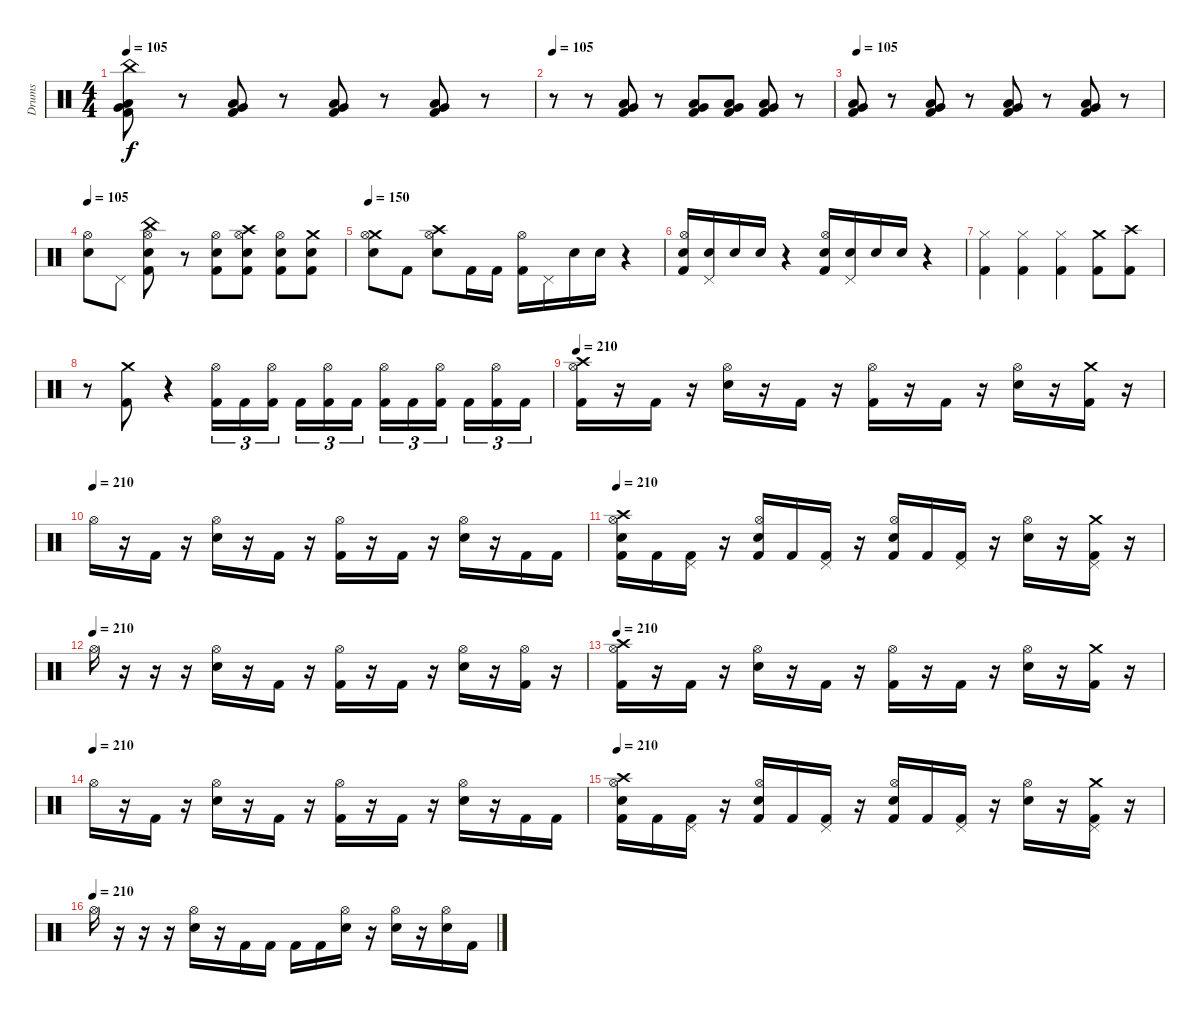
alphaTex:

\track ("Drums" "Drums") {instrument percussion}
\staff {score}
\articulation defaults
\ts (4 4)
\tempo 105
\clef neutral
\ks c
("China (hit)" "Very Low Tom (hit)" "Low Tom (hit)" "Kick (hit) 2").8{dy f} r.8 ("Low Tom (hit)" "Very Low Tom (hit)" "Kick (hit) 2").8 r.8 ("Low Tom (hit)" "Very Low Tom (hit)" "Kick (hit) 2").8 r.8 ("Low Tom (hit)" "Very Low Tom (hit)" "Kick (hit) 2").8 r.8 |
\tempo 105
r.8 r.8 ("Low Tom (hit)" "Very Low Tom (hit)" "Kick (hit) 2").8 r.8 ("Low Tom (hit)" "Very Low Tom (hit)" "Kick (hit) 2").8 ("Low Tom (hit)" "Very Low Tom (hit)" "Kick (hit) 2").8 ("Low Tom (hit)" "Very Low Tom (hit)" "Kick (hit) 2").8 r.8 |
\tempo 105
("Very Low Tom (hit)" "Low Tom (hit)" "Kick (hit) 2").8 r.8 ("Low Tom (hit)" "Very Low Tom (hit)" "Kick (hit) 2").8 r.8 ("Low Tom (hit)" "Very Low Tom (hit)" "Kick (hit) 2").8 r.8 ("Low Tom (hit)" "Very Low Tom (hit)" "Kick (hit) 2").8 r.8 |
\tempo 105
("Hi-Hat (open)" "Electric Snare (hit)").8 "Pedal Hi-Hat (hit)".8 ("China (hit)" "Hi-Hat (open)" "Electric Snare (hit)" "Kick (hit) 2").8 r.8 ("Hi-Hat (open)" "Electric Snare (hit)" "Kick (hit) 2").8 ("Crash high (hit)" "Hi-Hat (open)" "Electric Snare (hit)" "Kick (hit) 2").8 ("Hi-Hat (open)" "Electric Snare (hit)" "Kick (hit) 2").8 ("Crash medium (hit)" "Electric Snare (hit)" "Kick (hit) 2").8 |
\tempo 150
("Crash medium (hit)" "Hi-Hat (open)" "Electric Snare (hit)").8 "Kick (hit) 2".8 ("Crash high (hit)" "Hi-Hat (open)" "Electric Snare (hit)").8 "Kick (hit) 2".16 "Kick (hit) 2".16 ("Hi-Hat (open)" "Kick (hit) 2").16 "Pedal Hi-Hat (hit)".16 "Electric Snare (hit)".16 "Electric Snare (hit)".16 r.4 |
("Hi-Hat (open)" "Electric Snare (hit)" "Kick (hit) 2").16 ("Pedal Hi-Hat (hit)" "Electric Snare (hit)").16 "Electric Snare (hit)".16 "Electric Snare (hit)".16 r.4 ("Hi-Hat (open)" "Electric Snare (hit)" "Kick (hit) 2").16 ("Pedal Hi-Hat (hit)" "Electric Snare (hit)").16 "Electric Snare (hit)".16 "Electric Snare (hit)".16 r.4 |
("Hi-Hat (closed)" "Kick (hit) 2").4 ("Hi-Hat (closed)" "Kick (hit) 2").4 ("Hi-Hat (closed)" "Kick (hit) 2").4 ("Crash medium (hit)" "Kick (hit) 2").8 ("Crash high (hit)" "Kick (hit) 2").8 |
r.8 ("Crash medium (hit)" "Kick (hit) 2").8 r.4 ("Hi-Hat (open)" "Kick (hit) 2").16{tu (3 2)} "Kick (hit) 2".16{tu (3 2)} ("Hi-Hat (open)" "Kick (hit) 2").16{tu (3 2)} "Kick (hit) 2".16{tu (3 2)} ("Hi-Hat (open)" "Kick (hit) 2").16{tu (3 2)} "Kick (hit) 2".16{tu (3 2)} ("Hi-Hat (open)" "Kick (hit) 2").16{tu (3 2)} "Kick (hit) 2".16{tu (3 2)} ("Hi-Hat (open)" "Kick (hit) 2").16{tu (3 2)} "Kick (hit) 2".16{tu (3 2)} ("Hi-Hat (open)" "Kick (hit) 2").16{tu (3 2)} "Kick (hit) 2".16{tu (3 2)} |
\tempo 210
("Crash high (hit)" "Hi-Hat (open)" "Kick (hit) 2").16 r.16 "Kick (hit) 2".16 r.16 ("Hi-Hat (open)" "Electric Snare (hit)").16 r.16 "Kick (hit) 2".16 r.16 ("Hi-Hat (open)" "Kick (hit) 2").16 r.16 "Kick (hit) 2".16 r.16 ("Hi-Hat (open)" "Electric Snare (hit)").16 r.16 ("Crash medium (hit)" "Kick (hit) 2").16 r.16 |
\tempo (210)
"Hi-Hat (open)".16 r.16 "Kick (hit) 2".16 r.16 ("Hi-Hat (open)" "Electric Snare (hit)").16 r.16 "Kick (hit) 2".16 r.16 ("Hi-Hat (open)" "Kick (hit) 2").16 r.16 "Kick (hit) 2".16 r.16 ("Hi-Hat (open)" "Electric Snare (hit)").16 r.16 "Kick (hit) 2".16 "Kick (hit) 2".16 |
\tempo 210
("Crash high (hit)" "Hi-Hat (open)" "Electric Snare (hit)" "Kick (hit) 2").16 "Kick (hit) 2".16 ("Pedal Hi-Hat (hit)" "Kick (hit) 2").16 r.16 ("Hi-Hat (open)" "Electric Snare (hit)" "Kick (hit) 2").16 "Kick (hit) 2".16 ("Pedal Hi-Hat (hit)" "Kick (hit) 2").16 r.16 ("Hi-Hat (open)" "Electric Snare (hit)" "Kick (hit) 2").16 "Kick (hit) 2".16 ("Pedal Hi-Hat (hit)" "Kick (hit) 2").16 r.16 ("Hi-Hat (open)" "Electric Snare (hit)").16 r.16 ("Crash medium (hit)" "Pedal Hi-Hat (hit)" "Kick (hit) 2").16 r.16 |
\tempo (210)
"Hi-Hat (open)".16 r.16 r.16 r.16 ("Hi-Hat (open)" "Electric Snare (hit)").16 r.16 "Kick (hit) 2".16 r.16 ("Hi-Hat (open)" "Kick (hit) 2").16 r.16 "Kick (hit) 2".16 r.16 ("Hi-Hat (open)" "Electric Snare (hit)").16 r.16 ("Hi-Hat (open)" "Kick (hit) 2").16 r.16 |
\tempo 210
("Crash high (hit)" "Hi-Hat (open)" "Kick (hit) 2").16 r.16 "Kick (hit) 2".16 r.16 ("Hi-Hat (open)" "Electric Snare (hit)").16 r.16 "Kick (hit) 2".16 r.16 ("Hi-Hat (open)" "Kick (hit) 2").16 r.16 "Kick (hit) 2".16 r.16 ("Hi-Hat (open)" "Electric Snare (hit)").16 r.16 ("Crash medium (hit)" "Kick (hit) 2").16 r.16 |
\tempo (210)
"Hi-Hat (open)".16 r.16 "Kick (hit) 2".16 r.16 ("Hi-Hat (open)" "Electric Snare (hit)").16 r.16 "Kick (hit) 2".16 r.16 ("Hi-Hat (open)" "Kick (hit) 2").16 r.16 "Kick (hit) 2".16 r.16 ("Hi-Hat (open)" "Electric Snare (hit)").16 r.16 "Kick (hit) 2".16 "Kick (hit) 2".16 |
\tempo 210
("Crash high (hit)" "Hi-Hat (open)" "Electric Snare (hit)" "Kick (hit) 2").16 "Kick (hit) 2".16 ("Pedal Hi-Hat (hit)" "Kick (hit) 2").16 r.16 ("Hi-Hat (open)" "Electric Snare (hit)" "Kick (hit) 2").16 "Kick (hit) 2".16 ("Pedal Hi-Hat (hit)" "Kick (hit) 2").16 r.16 ("Hi-Hat (open)" "Electric Snare (hit)" "Kick (hit) 2").16 "Kick (hit) 2".16 ("Pedal Hi-Hat (hit)" "Kick (hit) 2").16 r.16 ("Hi-Hat (open)" "Electric Snare (hit)").16 r.16 ("Crash medium (hit)" "Pedal Hi-Hat (hit)" "Kick (hit) 2").16 r.16 |
\tempo (210)
"Hi-Hat (open)".16 r.16 r.16 r.16 ("Hi-Hat (open)" "Electric Snare (hit)").16 r.16 "Kick (hit) 2".16 "Kick (hit) 2".16 "Kick (hit) 2".16 "Kick (hit) 2".16 ("Hi-Hat (open)" "Electric Snare (hit)").16 r.16 ("Hi-Hat (open)" "Electric Snare (hit)").16 r.16 ("Hi-Hat (open)" "Electric Snare (hit)").16 "Kick (hit) 2".16
